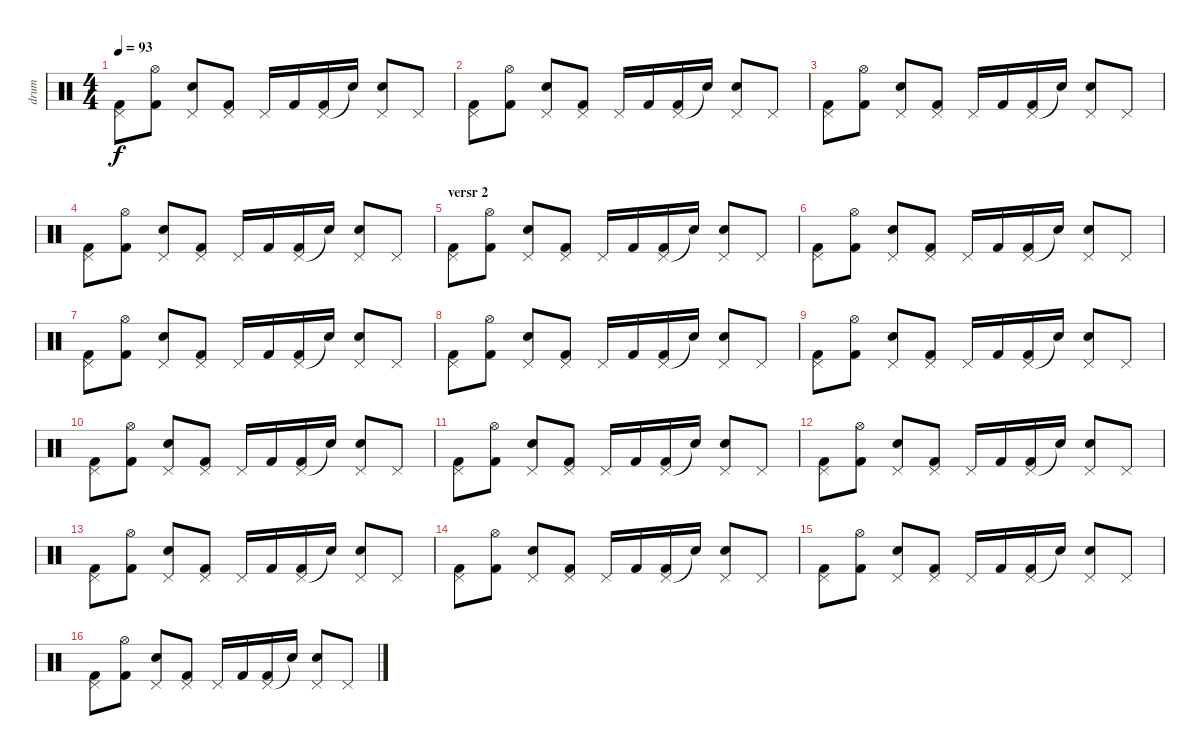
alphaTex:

\track ("drum" "drum") {instrument percussion}
\staff {score}
\articulation defaults
\ts (4 4)
\tempo 93
\clef neutral
\ks c
("Pedal Hi-Hat (hit)" "Kick (hit) 2").8{dy f} ("Hi-Hat (open)" "Kick (hit) 2").8 ("Pedal Hi-Hat (hit)" "Snare (hit) 2").8 ("Pedal Hi-Hat (hit)" "Kick (hit) 2").8 "Pedal Hi-Hat (hit)".16 "Kick (hit) 2".16 ("Pedal Hi-Hat (hit)" "Kick (hit) 2").16 "Snare (hit)"{t}.16 ("Pedal Hi-Hat (hit)" "Snare (hit) 2").8 "Pedal Hi-Hat (hit)".8 |
("Pedal Hi-Hat (hit)" "Kick (hit) 2").8 ("Hi-Hat (open)" "Kick (hit) 2").8 ("Pedal Hi-Hat (hit)" "Snare (hit) 2").8 ("Pedal Hi-Hat (hit)" "Kick (hit) 2").8 "Pedal Hi-Hat (hit)".16 "Kick (hit) 2".16 ("Pedal Hi-Hat (hit)" "Kick (hit) 2").16 "Snare (hit)"{t}.16 ("Pedal Hi-Hat (hit)" "Snare (hit) 2").8 "Pedal Hi-Hat (hit)".8 |
("Pedal Hi-Hat (hit)" "Kick (hit) 2").8 ("Hi-Hat (open)" "Kick (hit) 2").8 ("Pedal Hi-Hat (hit)" "Snare (hit) 2").8 ("Pedal Hi-Hat (hit)" "Kick (hit) 2").8 "Pedal Hi-Hat (hit)".16 "Kick (hit) 2".16 ("Pedal Hi-Hat (hit)" "Kick (hit) 2").16 "Snare (hit)"{t}.16 ("Pedal Hi-Hat (hit)" "Snare (hit) 2").8 "Pedal Hi-Hat (hit)".8 |
("Pedal Hi-Hat (hit)" "Kick (hit) 2").8 ("Hi-Hat (open)" "Kick (hit) 2").8 ("Pedal Hi-Hat (hit)" "Snare (hit) 2").8 ("Pedal Hi-Hat (hit)" "Kick (hit) 2").8 "Pedal Hi-Hat (hit)".16 "Kick (hit) 2".16 ("Pedal Hi-Hat (hit)" "Kick (hit) 2").16 "Snare (hit)"{t}.16 ("Pedal Hi-Hat (hit)" "Snare (hit) 2").8 "Pedal Hi-Hat (hit)".8 |
\section ("" "versr 2")
("Pedal Hi-Hat (hit)" "Kick (hit) 2").8 ("Hi-Hat (open)" "Kick (hit) 2").8 ("Pedal Hi-Hat (hit)" "Snare (hit) 2").8 ("Pedal Hi-Hat (hit)" "Kick (hit) 2").8 "Pedal Hi-Hat (hit)".16 "Kick (hit) 2".16 ("Pedal Hi-Hat (hit)" "Kick (hit) 2").16 "Snare (hit)"{t}.16 ("Pedal Hi-Hat (hit)" "Snare (hit) 2").8 "Pedal Hi-Hat (hit)".8 |
("Pedal Hi-Hat (hit)" "Kick (hit) 2").8 ("Hi-Hat (open)" "Kick (hit) 2").8 ("Pedal Hi-Hat (hit)" "Snare (hit) 2").8 ("Pedal Hi-Hat (hit)" "Kick (hit) 2").8 "Pedal Hi-Hat (hit)".16 "Kick (hit) 2".16 ("Pedal Hi-Hat (hit)" "Kick (hit) 2").16 "Snare (hit)"{t}.16 ("Pedal Hi-Hat (hit)" "Snare (hit) 2").8 "Pedal Hi-Hat (hit)".8 |
("Pedal Hi-Hat (hit)" "Kick (hit) 2").8 ("Hi-Hat (open)" "Kick (hit) 2").8 ("Pedal Hi-Hat (hit)" "Snare (hit) 2").8 ("Pedal Hi-Hat (hit)" "Kick (hit) 2").8 "Pedal Hi-Hat (hit)".16 "Kick (hit) 2".16 ("Pedal Hi-Hat (hit)" "Kick (hit) 2").16 "Snare (hit)"{t}.16 ("Pedal Hi-Hat (hit)" "Snare (hit) 2").8 "Pedal Hi-Hat (hit)".8 |
("Pedal Hi-Hat (hit)" "Kick (hit) 2").8 ("Hi-Hat (open)" "Kick (hit) 2").8 ("Pedal Hi-Hat (hit)" "Snare (hit) 2").8 ("Pedal Hi-Hat (hit)" "Kick (hit) 2").8 "Pedal Hi-Hat (hit)".16 "Kick (hit) 2".16 ("Pedal Hi-Hat (hit)" "Kick (hit) 2").16 "Snare (hit)"{t}.16 ("Pedal Hi-Hat (hit)" "Snare (hit) 2").8 "Pedal Hi-Hat (hit)".8 |
("Pedal Hi-Hat (hit)" "Kick (hit) 2").8 ("Hi-Hat (open)" "Kick (hit) 2").8 ("Pedal Hi-Hat (hit)" "Snare (hit) 2").8 ("Pedal Hi-Hat (hit)" "Kick (hit) 2").8 "Pedal Hi-Hat (hit)".16 "Kick (hit) 2".16 ("Pedal Hi-Hat (hit)" "Kick (hit) 2").16 "Snare (hit)"{t}.16 ("Pedal Hi-Hat (hit)" "Snare (hit) 2").8 "Pedal Hi-Hat (hit)".8 |
("Pedal Hi-Hat (hit)" "Kick (hit) 2").8 ("Hi-Hat (open)" "Kick (hit) 2").8 ("Pedal Hi-Hat (hit)" "Snare (hit) 2").8 ("Pedal Hi-Hat (hit)" "Kick (hit) 2").8 "Pedal Hi-Hat (hit)".16 "Kick (hit) 2".16 ("Pedal Hi-Hat (hit)" "Kick (hit) 2").16 "Snare (hit)"{t}.16 ("Pedal Hi-Hat (hit)" "Snare (hit) 2").8 "Pedal Hi-Hat (hit)".8 |
("Pedal Hi-Hat (hit)" "Kick (hit) 2").8 ("Hi-Hat (open)" "Kick (hit) 2").8 ("Pedal Hi-Hat (hit)" "Snare (hit) 2").8 ("Pedal Hi-Hat (hit)" "Kick (hit) 2").8 "Pedal Hi-Hat (hit)".16 "Kick (hit) 2".16 ("Pedal Hi-Hat (hit)" "Kick (hit) 2").16 "Snare (hit)"{t}.16 ("Pedal Hi-Hat (hit)" "Snare (hit) 2").8 "Pedal Hi-Hat (hit)".8 |
("Pedal Hi-Hat (hit)" "Kick (hit) 2").8 ("Hi-Hat (open)" "Kick (hit) 2").8 ("Pedal Hi-Hat (hit)" "Snare (hit) 2").8 ("Pedal Hi-Hat (hit)" "Kick (hit) 2").8 "Pedal Hi-Hat (hit)".16 "Kick (hit) 2".16 ("Pedal Hi-Hat (hit)" "Kick (hit) 2").16 "Snare (hit)"{t}.16 ("Pedal Hi-Hat (hit)" "Snare (hit) 2").8 "Pedal Hi-Hat (hit)".8 |
("Pedal Hi-Hat (hit)" "Kick (hit) 2").8 ("Hi-Hat (open)" "Kick (hit) 2").8 ("Pedal Hi-Hat (hit)" "Snare (hit) 2").8 ("Pedal Hi-Hat (hit)" "Kick (hit) 2").8 "Pedal Hi-Hat (hit)".16 "Kick (hit) 2".16 ("Pedal Hi-Hat (hit)" "Kick (hit) 2").16 "Snare (hit)"{t}.16 ("Pedal Hi-Hat (hit)" "Snare (hit) 2").8 "Pedal Hi-Hat (hit)".8 |
("Pedal Hi-Hat (hit)" "Kick (hit) 2").8 ("Hi-Hat (open)" "Kick (hit) 2").8 ("Pedal Hi-Hat (hit)" "Snare (hit) 2").8 ("Pedal Hi-Hat (hit)" "Kick (hit) 2").8 "Pedal Hi-Hat (hit)".16 "Kick (hit) 2".16 ("Pedal Hi-Hat (hit)" "Kick (hit) 2").16 "Snare (hit)"{t}.16 ("Pedal Hi-Hat (hit)" "Snare (hit) 2").8 "Pedal Hi-Hat (hit)".8 |
("Pedal Hi-Hat (hit)" "Kick (hit) 2").8 ("Hi-Hat (open)" "Kick (hit) 2").8 ("Pedal Hi-Hat (hit)" "Snare (hit) 2").8 ("Pedal Hi-Hat (hit)" "Kick (hit) 2").8 "Pedal Hi-Hat (hit)".16 "Kick (hit) 2".16 ("Pedal Hi-Hat (hit)" "Kick (hit) 2").16 "Snare (hit)"{t}.16 ("Pedal Hi-Hat (hit)" "Snare (hit) 2").8 "Pedal Hi-Hat (hit)".8 |
("Pedal Hi-Hat (hit)" "Kick (hit) 2").8 ("Hi-Hat (open)" "Kick (hit) 2").8 ("Pedal Hi-Hat (hit)" "Snare (hit) 2").8 ("Pedal Hi-Hat (hit)" "Kick (hit) 2").8 "Pedal Hi-Hat (hit)".16 "Kick (hit) 2".16 ("Pedal Hi-Hat (hit)" "Kick (hit) 2").16 "Snare (hit)"{t}.16 ("Pedal Hi-Hat (hit)" "Snare (hit) 2").8 "Pedal Hi-Hat (hit)".8
